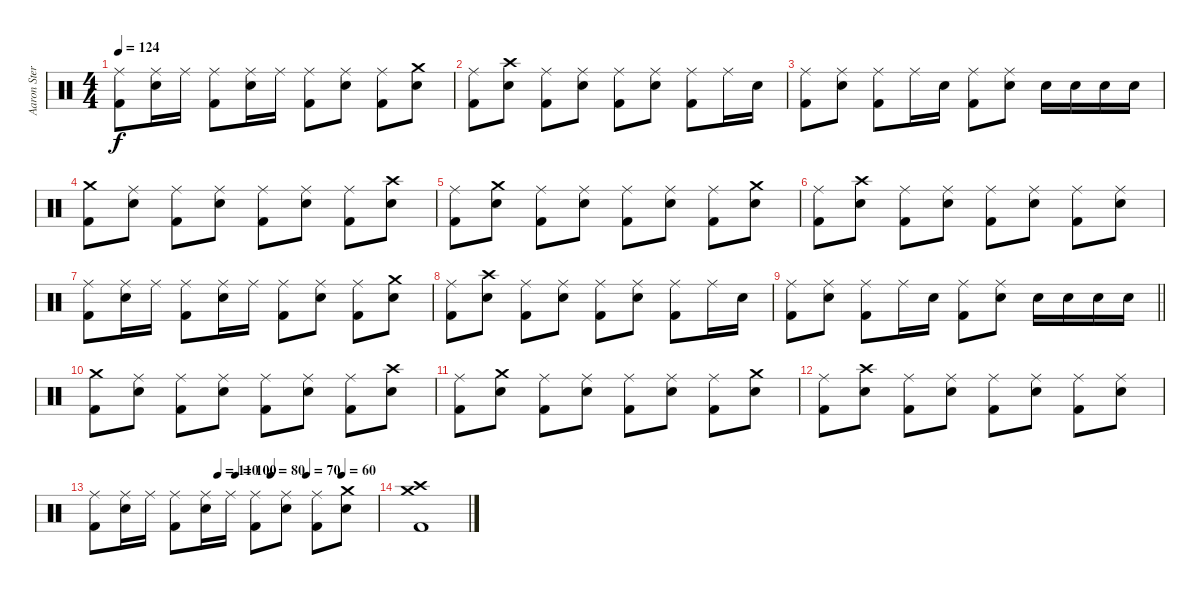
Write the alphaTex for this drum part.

\track ("Aaron Stern" "Aaron Ster") {instrument percussion}
\staff {score}
\articulation defaults
\ts (4 4)
\tempo 124
\clef neutral
\ks c
("Ride (middle)" "Kick (hit) 2").8{dy f} ("Ride (middle)" "Snare (hit) 2").16 "Ride (middle)".16 ("Ride (middle)" "Kick (hit) 2").8 ("Ride (middle)" "Snare (hit) 2").16 "Ride (middle)".16 ("Ride (middle)" "Kick (hit) 2").8 ("Ride (middle)" "Snare (hit) 2").8 ("Ride (middle)" "Kick (hit) 2").8 ("Crash medium (hit)" "Snare (hit) 2").8 |
("Ride (middle)" "Kick (hit) 2").8 ("Crash high (hit)" "Snare (hit) 2").8 ("Ride (middle)" "Kick (hit) 2").8 ("Ride (middle)" "Snare (hit) 2").8 ("Ride (middle)" "Kick (hit) 2").8 ("Ride (middle)" "Snare (hit) 2").8 ("Ride (middle)" "Kick (hit) 2").8 "Ride (middle)".16 "Snare (hit) 2".16 |
("Ride (middle)" "Kick (hit) 2").8 ("Ride (middle)" "Snare (hit) 2").8 ("Ride (middle)" "Kick (hit) 2").8 "Ride (middle)".16 "Snare (hit) 2".16 ("Ride (middle)" "Kick (hit) 2").8 ("Ride (middle)" "Snare (hit) 2").8 "Snare (hit) 2".16 "Snare (hit) 2".16 "Snare (hit) 2".16 "Snare (hit) 2".16 |
("Crash medium (hit)" "Kick (hit) 2").8 ("Ride (middle)" "Snare (hit) 2").8 ("Ride (middle)" "Kick (hit) 2").8 ("Ride (middle)" "Snare (hit) 2").8 ("Ride (middle)" "Kick (hit) 2").8 ("Ride (middle)" "Snare (hit) 2").8 ("Ride (middle)" "Kick (hit) 2").8 ("Crash high (hit)" "Snare (hit) 2").8 |
("Ride (middle)" "Kick (hit) 2").8 ("Crash medium (hit)" "Snare (hit) 2").8 ("Ride (middle)" "Kick (hit) 2").8 ("Ride (middle)" "Snare (hit) 2").8 ("Ride (middle)" "Kick (hit) 2").8 ("Ride (middle)" "Snare (hit) 2").8 ("Ride (middle)" "Kick (hit) 2").8 ("Crash medium (hit)" "Snare (hit) 2").8 |
("Ride (middle)" "Kick (hit) 2").8 ("Crash high (hit)" "Snare (hit) 2").8 ("Ride (middle)" "Kick (hit) 2").8 ("Ride (middle)" "Snare (hit) 2").8 ("Ride (middle)" "Kick (hit) 2").8 ("Ride (middle)" "Snare (hit) 2").8 ("Ride (middle)" "Kick (hit) 2").8 ("Ride (middle)" "Snare (hit) 2").8 |
("Ride (middle)" "Kick (hit) 2").8 ("Ride (middle)" "Snare (hit) 2").16 "Ride (middle)".16 ("Ride (middle)" "Kick (hit) 2").8 ("Ride (middle)" "Snare (hit) 2").16 "Ride (middle)".16 ("Ride (middle)" "Kick (hit) 2").8 ("Ride (middle)" "Snare (hit) 2").8 ("Ride (middle)" "Kick (hit) 2").8 ("Crash medium (hit)" "Snare (hit) 2").8 |
("Ride (middle)" "Kick (hit) 2").8 ("Crash high (hit)" "Snare (hit) 2").8 ("Ride (middle)" "Kick (hit) 2").8 ("Ride (middle)" "Snare (hit) 2").8 ("Ride (middle)" "Kick (hit) 2").8 ("Ride (middle)" "Snare (hit) 2").8 ("Ride (middle)" "Kick (hit) 2").8 "Ride (middle)".16 "Snare (hit) 2".16 |
\barLineRight lightlight
("Ride (middle)" "Kick (hit) 2").8 ("Ride (middle)" "Snare (hit) 2").8 ("Ride (middle)" "Kick (hit) 2").8 "Ride (middle)".16 "Snare (hit) 2".16 ("Ride (middle)" "Kick (hit) 2").8 ("Ride (middle)" "Snare (hit) 2").8 "Snare (hit) 2".16 "Snare (hit) 2".16 "Snare (hit) 2".16 "Snare (hit) 2".16 |
("Crash medium (hit)" "Kick (hit) 2").8 ("Ride (middle)" "Snare (hit) 2").8 ("Ride (middle)" "Kick (hit) 2").8 ("Ride (middle)" "Snare (hit) 2").8 ("Ride (middle)" "Kick (hit) 2").8 ("Ride (middle)" "Snare (hit) 2").8 ("Ride (middle)" "Kick (hit) 2").8 ("Crash high (hit)" "Snare (hit) 2").8 |
("Ride (middle)" "Kick (hit) 2").8 ("Crash medium (hit)" "Snare (hit) 2").8 ("Ride (middle)" "Kick (hit) 2").8 ("Ride (middle)" "Snare (hit) 2").8 ("Ride (middle)" "Kick (hit) 2").8 ("Ride (middle)" "Snare (hit) 2").8 ("Ride (middle)" "Kick (hit) 2").8 ("Crash medium (hit)" "Snare (hit) 2").8 |
("Ride (middle)" "Kick (hit) 2").8 ("Crash high (hit)" "Snare (hit) 2").8 ("Ride (middle)" "Kick (hit) 2").8 ("Ride (middle)" "Snare (hit) 2").8 ("Ride (middle)" "Kick (hit) 2").8 ("Ride (middle)" "Snare (hit) 2").8 ("Ride (middle)" "Kick (hit) 2").8 ("Ride (middle)" "Snare (hit) 2").8 |
\tempo (100 0.5)
\tempo (80 0.625)
\tempo (70 0.75)
\tempo (60 0.875)
\tempo (110 0.4375)
("Ride (middle)" "Kick (hit) 2").8 ("Ride (middle)" "Snare (hit) 2").16 "Ride (middle)".16 ("Ride (middle)" "Kick (hit) 2").8 ("Ride (middle)" "Snare (hit) 2").16 "Ride (middle)".16 ("Ride (middle)" "Kick (hit) 2").8 ("Ride (middle)" "Snare (hit) 2").8 ("Ride (middle)" "Kick (hit) 2").8 ("Crash medium (hit)" "Snare (hit) 2").8 |
("Crash medium (hit)" "Crash high (hit)" "Kick (hit) 2").1
